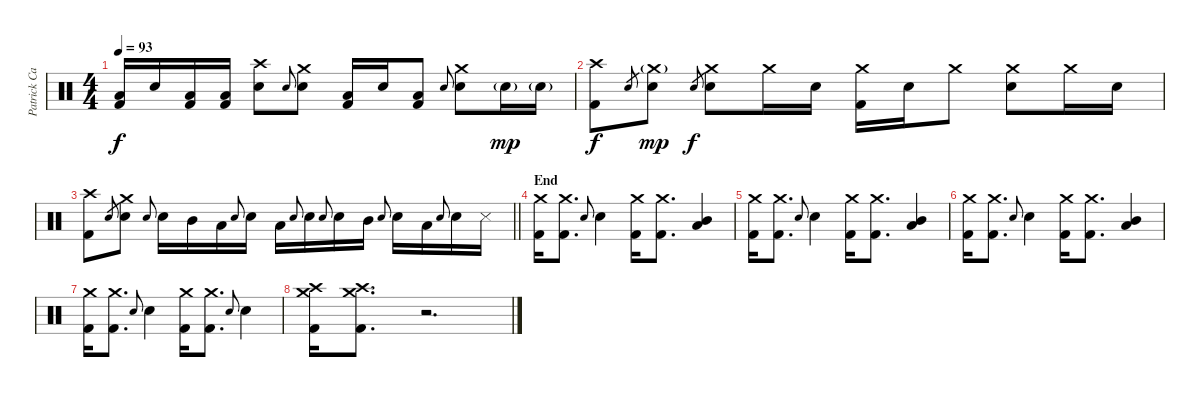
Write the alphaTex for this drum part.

\track ("Patrick Carney [Drums]" "Patrick Ca") {instrument percussion}
\staff {score}
\articulation defaults
\ts (4 4)
\tempo 93
\clef neutral
\ks c
("Low Floor Tom (hit)" "Kick (hit) 2").16{dy f} "Electric Snare (hit)".16 ("Low Floor Tom (hit)" "Kick (hit) 2").16 ("Low Floor Tom (hit)" "Kick (hit) 2").16 ("Crash high (hit)" "Electric Snare (hit)").8 "Electric Snare (hit)".8{gr onbeat} ("Crash medium (hit)" "Electric Snare (hit)").8 ("Low Floor Tom (hit)" "Kick (hit) 2").16 "Electric Snare (hit)".16 ("Low Floor Tom (hit)" "Kick (hit) 2").8 "Electric Snare (hit)".8{gr onbeat} ("Crash medium (hit)" "Electric Snare (hit)").8 "Electric Snare (hit)"{g}.16{dy mp} "Electric Snare (hit)"{g}.16 |
("Crash high (hit)" "Kick (hit) 2").8{dy f} "Electric Snare (hit)".8{gr} ("Crash medium (hit)"{g} "Electric Snare (hit)").8{dy mp} "Electric Snare (hit)".8{gr dy f} ("Crash medium (hit)" "Electric Snare (hit)").8 "Crash medium (hit)".16 "Electric Snare (hit)".16 ("Crash medium (hit)" "Kick (hit) 2").16 "Electric Snare (hit)".16 "Crash medium (hit)".8 ("Crash medium (hit)" "Electric Snare (hit)").8 "Crash medium (hit)".16 "Electric Snare (hit)".16 |
\barLineRight lightlight
("Crash high (hit)" "Kick (hit) 2").8 "Electric Snare (hit)".8{gr} ("Crash medium (hit)" "Electric Snare (hit)").8 "Electric Snare (hit)".8{gr onbeat} "Electric Snare (hit)".16 "Mid Tom (hit)".16 "Low Floor Tom (hit)".16 "Electric Snare (hit)".8{gr onbeat} "Electric Snare (hit)".16 "Low Floor Tom (hit)".16 "Electric Snare (hit)".8{gr onbeat} "Electric Snare (hit)".16 "Electric Snare (hit)".8{gr onbeat} "Electric Snare (hit)".16 "Mid Tom (hit)".16 "Electric Snare (hit)".8{gr onbeat} "Electric Snare (hit)".16 "Low Floor Tom (hit)".16 "Electric Snare (hit)".8{gr onbeat} "Electric Snare (hit)".16 "Snare (side stick) 3".16 |
\section ("" "End")
("Crash medium (hit)" "Kick (hit) 2").16 ("Crash medium (hit)" "Kick (hit) 2").8{d} "Electric Snare (hit)".8{gr onbeat} "Electric Snare (hit)".4 ("Crash medium (hit)" "Kick (hit) 2").16 ("Crash medium (hit)" "Kick (hit) 2").8{d} ("Low Floor Tom (hit)" "Mid Tom (hit)").4 |
("Crash medium (hit)" "Kick (hit) 2").16 ("Crash medium (hit)" "Kick (hit) 2").8{d} "Electric Snare (hit)".8{gr onbeat} "Electric Snare (hit)".4 ("Crash medium (hit)" "Kick (hit) 2").16 ("Crash medium (hit)" "Kick (hit) 2").8{d} ("Low Floor Tom (hit)" "Mid Tom (hit)").4 |
("Crash medium (hit)" "Kick (hit) 2").16 ("Crash medium (hit)" "Kick (hit) 2").8{d} "Electric Snare (hit)".8{gr onbeat} "Electric Snare (hit)".4 ("Crash medium (hit)" "Kick (hit) 2").16 ("Crash medium (hit)" "Kick (hit) 2").8{d} ("Low Floor Tom (hit)" "Mid Tom (hit)").4 |
("Crash medium (hit)" "Kick (hit) 2").16 ("Crash medium (hit)" "Kick (hit) 2").8{d} "Electric Snare (hit)".8{gr onbeat} "Electric Snare (hit)".4 ("Crash medium (hit)" "Kick (hit) 2").16 ("Crash medium (hit)" "Kick (hit) 2").8{d} "Electric Snare (hit)".8{gr onbeat} "Electric Snare (hit)".4 |
("Crash high (hit)" "Crash medium (hit)" "Kick (hit) 2").16 ("Crash high (hit)" "Crash medium (hit)" "Kick (hit) 2").8{d} r.2{d}
